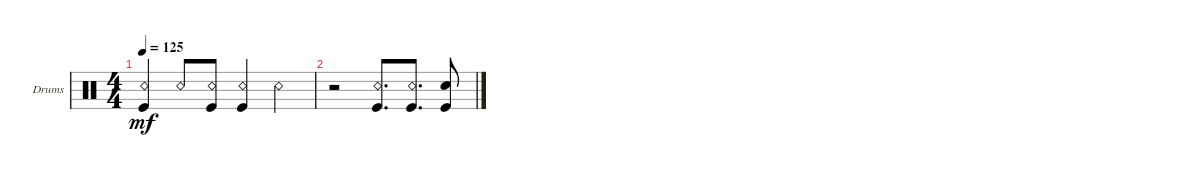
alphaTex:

\defaultSystemsLayout 4
\bracketExtendMode groupsimilarinstruments
\firstSystemTrackNameOrientation horizontal
\otherSystemsTrackNameOrientation horizontal
\track ("Drumkit" "Drums") {instrument percussion}
\staff {score}
\articulation defaults
\ts (4 4)
\tempo 125
\clef neutral
\scale
0.333333
\ks c
("Kick (hit)" "Snare (rim shot)").4{dy mf} "Snare (rim shot)".8 ("Kick (hit)" "Snare (rim shot)").8 ("Kick (hit)" "Snare (rim shot)").4 "Snare (rim shot)".4 |
r.2 ("Snare (rim shot)" "Kick (hit)").8{d} ("Snare (rim shot)" "Kick (hit)").8{d} ("Kick (hit)" "Snare (hit) 2").8
